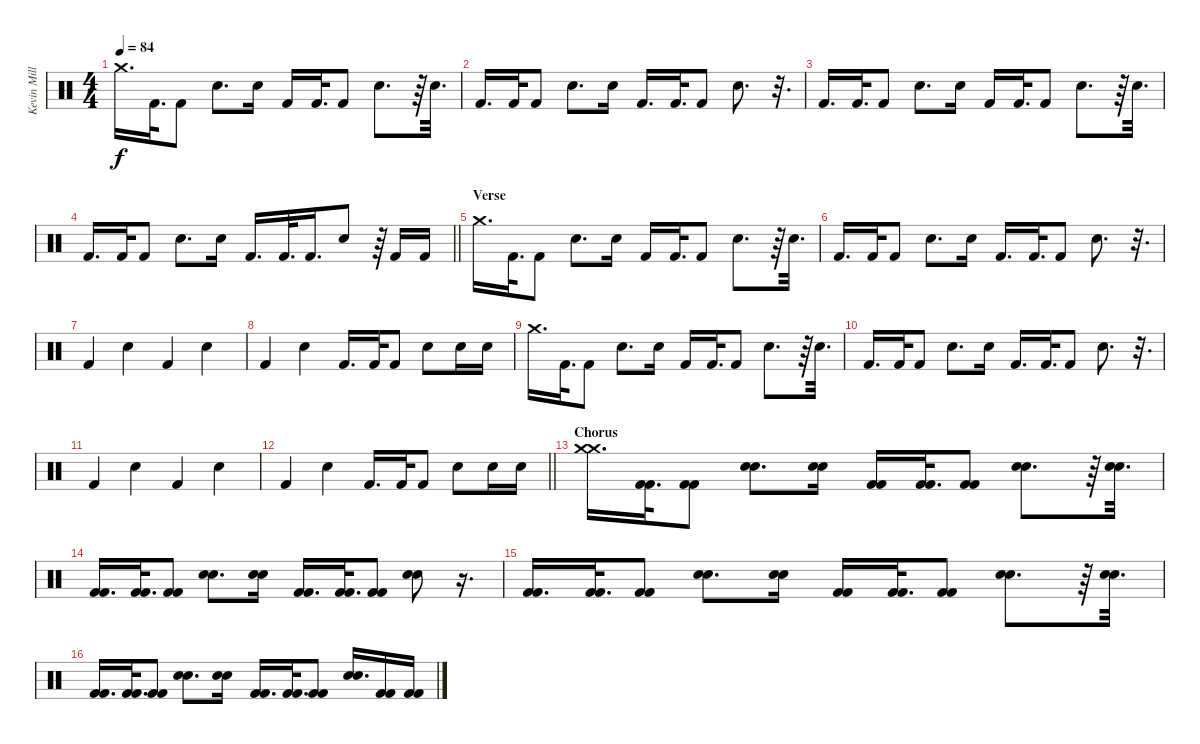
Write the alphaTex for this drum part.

\track ("Kevin Miller (Drums)" "Kevin Mill") {instrument percussion}
\staff {score}
\articulation defaults
\ts (4 4)
\section ("" "")
\tempo 84
\clef neutral
\ks c "Crash medium (hit)".16{d dy f} "Kick (hit) 2".32{d} "Kick (hit) 2".8 "Electric Snare (hit)".8{d} "Electric Snare (hit)".16 "Kick (hit) 2".16 "Kick (hit) 2".32{d} "Kick (hit) 2".8 "Electric Snare (hit)".8{d}
r.64 "Electric Snare (hit)".32{d} |
"Kick (hit) 2".16{d} "Kick (hit) 2".32 "Kick (hit) 2".8 "Electric Snare (hit)".8{d} "Electric Snare (hit)".16 "Kick (hit) 2".16{d} "Kick (hit) 2".32{d} "Kick (hit) 2".8 "Electric Snare (hit)".8{d} r.32{d} |
"Kick (hit) 2".16{d} "Kick (hit) 2".32{d} "Kick (hit) 2".8 "Electric Snare (hit)".8{d} "Electric Snare (hit)".16 "Kick (hit) 2".16 "Kick (hit) 2".32{d} "Kick (hit) 2".8 "Electric Snare (hit)".8{d} r.64 "Electric Snare (hit)".32{d} |
\barLineRight lightlight "Kick (hit) 2".16{d} "Kick (hit) 2".32 "Kick (hit) 2".8 "Electric Snare (hit)".8{d} "Electric Snare (hit)".16 "Kick (hit) 2".16{d} "Kick (hit) 2".32{d} "Kick (hit) 2".16{d} "Electric Snare (hit)".8
r.64 "Kick (hit) 2".16 "Kick (hit) 2".16 |
\section ("" "Verse")
"Crash medium (hit)".16{d} "Kick (hit) 2".32{d} "Kick (hit) 2".8 "Electric Snare (hit)".8{d} "Electric Snare (hit)".16 "Kick (hit) 2".16 "Kick (hit) 2".32{d} "Kick (hit) 2".8 "Electric Snare (hit)".8{d} r.64 "Electric Snare (hit)".32{d} |
"Kick (hit) 2".16{d} "Kick (hit) 2".32 "Kick (hit) 2".8 "Electric Snare (hit)".8{d} "Electric Snare (hit)".16 "Kick (hit) 2".16{d} "Kick (hit) 2".32{d} "Kick (hit) 2".8 "Electric Snare (hit)".8{d} r.32{d} |
"Kick (hit) 2".4 "Electric Snare (hit)".4 "Kick (hit) 2".4 "Electric Snare (hit)".4 |
"Kick (hit) 2".4 "Electric Snare (hit)".4 "Kick (hit) 2".16{d} "Kick (hit) 2".32 "Kick (hit) 2".8 "Electric Snare (hit)".8 "Electric Snare (hit)".16 "Electric Snare (hit)".16 |
"Crash medium (hit)".16{d} "Kick (hit) 2".32{d} "Kick (hit) 2".8 "Electric Snare (hit)".8{d} "Electric Snare (hit)".16 "Kick (hit) 2".16 "Kick (hit) 2".32{d} "Kick (hit) 2".8 "Electric Snare (hit)".8{d} r.64 "Electric Snare (hit)".32{d} |
"Kick (hit) 2".16{d} "Kick (hit) 2".32 "Kick (hit) 2".8 "Electric Snare (hit)".8{d} "Electric Snare (hit)".16 "Kick (hit) 2".16{d} "Kick (hit) 2".32{d} "Kick (hit) 2".8 "Electric Snare (hit)".8{d} r.32{d} |
"Kick (hit) 2".4 "Electric Snare (hit)".4 "Kick (hit) 2".4 "Electric Snare (hit)".4 |
\barLineRight lightlight "Kick (hit) 2".4 "Electric Snare (hit)".4 "Kick (hit) 2".16{d} "Kick (hit) 2".32 "Kick (hit) 2".8 "Electric Snare (hit)".8 "Electric Snare (hit)".16 "Electric Snare (hit)".16
|
\section ("" "Chorus")
("Crash medium (hit)" "Crash medium (hit)").16{d} ("Kick (hit) 2" "Kick (hit) 2").32{d} ("Kick (hit) 2" "Kick (hit) 2").8 ("Electric Snare (hit)" "Electric Snare (hit)").8{d} ("Electric Snare (hit)" "Electric Snare (hit)").16 ("Kick (hit) 2" "Kick (hit) 2").16 ("Kick (hit) 2" "Kick (hit) 2").32{d} ("Kick (hit) 2" "Kick (hit) 2").8 ("Electric Snare (hit)" "Electric Snare (hit)").8{d} r.64 ("Electric Snare (hit)" "Electric Snare (hit)").32{d} |
("Kick (hit) 2" "Kick (hit) 2").16{d} ("Kick (hit) 2" "Kick (hit) 2").32{d} ("Kick (hit) 2" "Kick (hit) 2").8 ("Electric Snare (hit)" "Electric Snare (hit)").8{d} ("Electric Snare (hit)" "Electric Snare (hit)").16 ("Kick (hit) 2" "Kick (hit) 2").16{d} ("Kick (hit) 2" "Kick (hit) 2").32{d} ("Kick (hit) 2" "Kick (hit) 2").8 ("Electric Snare (hit)" "Electric Snare (hit)").8 r.16{d} |
("Kick (hit) 2" "Kick (hit) 2").16{d} ("Kick (hit) 2" "Kick (hit) 2").32{d} ("Kick (hit) 2" "Kick (hit) 2").8 ("Electric Snare (hit)" "Electric Snare (hit)").8{d} ("Electric Snare (hit)" "Electric Snare (hit)").16 ("Kick (hit) 2" "Kick (hit) 2").16 ("Kick (hit) 2" "Kick (hit) 2").32{d} ("Kick (hit) 2" "Kick (hit) 2").8 ("Electric Snare (hit)" "Electric Snare (hit)").8{d} r.64 ("Electric Snare (hit)" "Electric Snare (hit)").32{d} |
("Kick (hit) 2" "Kick (hit) 2").16{d} ("Kick (hit) 2" "Kick (hit) 2").32{d} ("Kick (hit) 2" "Kick (hit) 2").8 ("Electric Snare (hit)" "Electric Snare (hit)").8{d} ("Electric Snare (hit)" "Electric Snare (hit)").16 ("Kick (hit) 2" "Kick (hit) 2").16{d} ("Kick (hit) 2" "Kick (hit) 2").32{d} ("Kick (hit) 2" "Kick (hit) 2").8 ("Electric Snare (hit)" "Electric Snare (hit)").16{d} ("Kick (hit) 2" "Kick (hit) 2").16 ("Kick (hit) 2" "Kick (hit) 2").16
